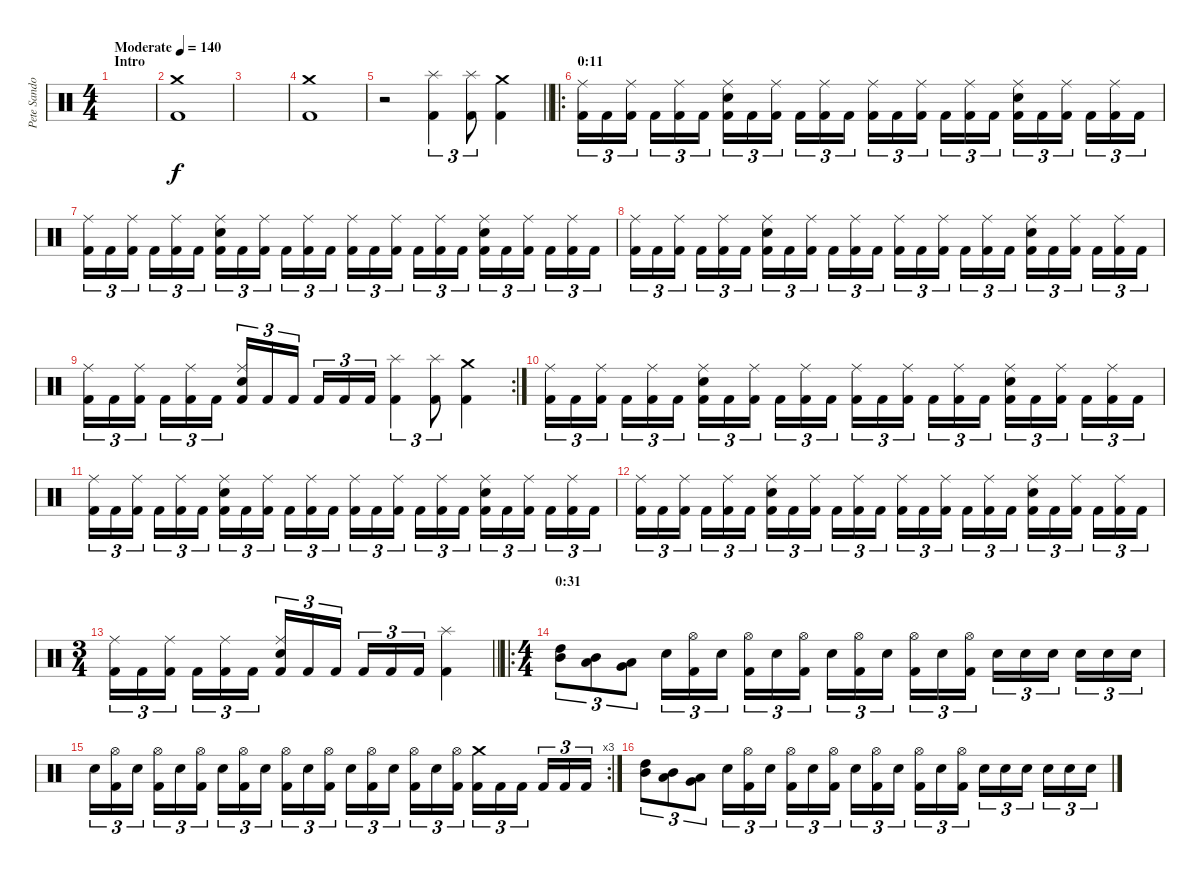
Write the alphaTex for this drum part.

\track ("Pete Sandoval" "Pete Sando") {instrument percussion}
\staff {score}
\articulation defaults
\ts (4 4)
\section ("" "Intro")
\tempo (140 "Moderate")
\clef neutral
\ks c
|
("Crash medium (hit)" "Kick (hit) 2").1 |
|
("Crash medium (hit)" "Kick (hit) 2").1 |
\barLineRight lightlight
r.2 ("Splash (hit)" "Kick (hit) 2").4{tu (3 2)} ("Splash (hit)" "Kick (hit) 2").8{tu (3 2)} ("Crash medium (hit)" "Kick (hit) 2").4 |
\ro
\section ("" "0:11")
("Ride (middle)" "Kick (hit) 2").16{tu (3 2)} "Kick (hit) 2".16{tu (3 2)} ("Ride (middle)" "Kick (hit) 2").16{tu (3 2) beam splitsecondary} "Kick (hit) 2".16{tu (3 2)} ("Ride (middle)" "Kick (hit) 2").16{tu (3 2)} "Kick (hit) 2".16{tu (3 2)} ("Ride (middle)" "Electric Snare (hit)" "Kick (hit) 2").16{tu (3 2)} "Kick (hit) 2".16{tu (3 2)} ("Ride (middle)" "Kick (hit) 2").16{tu (3 2) beam splitsecondary} "Kick (hit) 2".16{tu (3 2)} ("Ride (middle)" "Kick (hit) 2").16{tu (3 2)} "Kick (hit) 2".16{tu (3 2)} ("Ride (middle)" "Kick (hit) 2").16{tu (3 2)} "Kick (hit) 2".16{tu (3 2)} ("Ride (middle)" "Kick (hit) 2").16{tu (3 2) beam splitsecondary} "Kick (hit) 2".16{tu (3 2)} ("Ride (middle)" "Kick (hit) 2").16{tu (3 2)} "Kick (hit) 2".16{tu (3 2)} ("Ride (middle)" "Electric Snare (hit)" "Kick (hit) 2").16{tu (3 2)} "Kick (hit) 2".16{tu (3 2)} ("Ride (middle)" "Kick (hit) 2").16{tu (3 2) beam splitsecondary} "Kick (hit) 2".16{tu (3 2)} ("Ride (middle)" "Kick (hit) 2").16{tu (3 2)} "Kick (hit) 2".16{tu (3 2)} |
("Ride (middle)" "Kick (hit) 2").16{tu (3 2)} "Kick (hit) 2".16{tu (3 2)} ("Ride (middle)" "Kick (hit) 2").16{tu (3 2) beam splitsecondary} "Kick (hit) 2".16{tu (3 2)} ("Ride (middle)" "Kick (hit) 2").16{tu (3 2)} "Kick (hit) 2".16{tu (3 2)} ("Ride (middle)" "Electric Snare (hit)" "Kick (hit) 2").16{tu (3 2)} "Kick (hit) 2".16{tu (3 2)} ("Ride (middle)" "Kick (hit) 2").16{tu (3 2) beam splitsecondary} "Kick (hit) 2".16{tu (3 2)} ("Ride (middle)" "Kick (hit) 2").16{tu (3 2)} "Kick (hit) 2".16{tu (3 2)} ("Ride (middle)" "Kick (hit) 2").16{tu (3 2)} "Kick (hit) 2".16{tu (3 2)} ("Ride (middle)" "Kick (hit) 2").16{tu (3 2) beam splitsecondary} "Kick (hit) 2".16{tu (3 2)} ("Ride (middle)" "Kick (hit) 2").16{tu (3 2)} "Kick (hit) 2".16{tu (3 2)} ("Ride (middle)" "Electric Snare (hit)" "Kick (hit) 2").16{tu (3 2)} "Kick (hit) 2".16{tu (3 2)} ("Ride (middle)" "Kick (hit) 2").16{tu (3 2) beam splitsecondary} "Kick (hit) 2".16{tu (3 2)} ("Ride (middle)" "Kick (hit) 2").16{tu (3 2)} "Kick (hit) 2".16{tu (3 2)} |
("Ride (middle)" "Kick (hit) 2").16{tu (3 2)} "Kick (hit) 2".16{tu (3 2)} ("Ride (middle)" "Kick (hit) 2").16{tu (3 2) beam splitsecondary} "Kick (hit) 2".16{tu (3 2)} ("Ride (middle)" "Kick (hit) 2").16{tu (3 2)} "Kick (hit) 2".16{tu (3 2)} ("Ride (middle)" "Electric Snare (hit)" "Kick (hit) 2").16{tu (3 2)} "Kick (hit) 2".16{tu (3 2)} ("Ride (middle)" "Kick (hit) 2").16{tu (3 2) beam splitsecondary} "Kick (hit) 2".16{tu (3 2)} ("Ride (middle)" "Kick (hit) 2").16{tu (3 2)} "Kick (hit) 2".16{tu (3 2)} ("Ride (middle)" "Kick (hit) 2").16{tu (3 2)} "Kick (hit) 2".16{tu (3 2)} ("Ride (middle)" "Kick (hit) 2").16{tu (3 2) beam splitsecondary} "Kick (hit) 2".16{tu (3 2)} ("Ride (middle)" "Kick (hit) 2").16{tu (3 2)} "Kick (hit) 2".16{tu (3 2)} ("Ride (middle)" "Electric Snare (hit)" "Kick (hit) 2").16{tu (3 2)} "Kick (hit) 2".16{tu (3 2)} ("Ride (middle)" "Kick (hit) 2").16{tu (3 2) beam splitsecondary} "Kick (hit) 2".16{tu (3 2)} ("Ride (middle)" "Kick (hit) 2").16{tu (3 2)} "Kick (hit) 2".16{tu (3 2)} |
\rc 2
("Ride (middle)" "Kick (hit) 2").16{tu (3 2)} "Kick (hit) 2".16{tu (3 2)} ("Ride (middle)" "Kick (hit) 2").16{tu (3 2) beam splitsecondary} "Kick (hit) 2".16{tu (3 2)} ("Ride (middle)" "Kick (hit) 2").16{tu (3 2)} "Kick (hit) 2".16{tu (3 2)} ("Ride (middle)" "Electric Snare (hit)" "Kick (hit) 2").16{tu (3 2)} "Kick (hit) 2".16{tu (3 2)} "Kick (hit) 2".16{tu (3 2) beam splitsecondary} "Kick (hit) 2".16{tu (3 2)} "Kick (hit) 2".16{tu (3 2)} "Kick (hit) 2".16{tu (3 2)} ("Splash (hit)" "Kick (hit) 2").4{tu (3 2)} ("Splash (hit)" "Kick (hit) 2").8{tu (3 2)} ("Crash medium (hit)" "Kick (hit) 2").4 |
("Ride (middle)" "Kick (hit) 2").16{tu (3 2)} "Kick (hit) 2".16{tu (3 2)} ("Ride (middle)" "Kick (hit) 2").16{tu (3 2) beam splitsecondary} "Kick (hit) 2".16{tu (3 2)} ("Ride (middle)" "Kick (hit) 2").16{tu (3 2)} "Kick (hit) 2".16{tu (3 2)} ("Ride (middle)" "Electric Snare (hit)" "Kick (hit) 2").16{tu (3 2)} "Kick (hit) 2".16{tu (3 2)} ("Ride (middle)" "Kick (hit) 2").16{tu (3 2) beam splitsecondary} "Kick (hit) 2".16{tu (3 2)} ("Ride (middle)" "Kick (hit) 2").16{tu (3 2)} "Kick (hit) 2".16{tu (3 2)} ("Ride (middle)" "Kick (hit) 2").16{tu (3 2)} "Kick (hit) 2".16{tu (3 2)} ("Ride (middle)" "Kick (hit) 2").16{tu (3 2) beam splitsecondary} "Kick (hit) 2".16{tu (3 2)} ("Ride (middle)" "Kick (hit) 2").16{tu (3 2)} "Kick (hit) 2".16{tu (3 2)} ("Ride (middle)" "Electric Snare (hit)" "Kick (hit) 2").16{tu (3 2)} "Kick (hit) 2".16{tu (3 2)} ("Ride (middle)" "Kick (hit) 2").16{tu (3 2) beam splitsecondary} "Kick (hit) 2".16{tu (3 2)} ("Ride (middle)" "Kick (hit) 2").16{tu (3 2)} "Kick (hit) 2".16{tu (3 2)} |
("Ride (middle)" "Kick (hit) 2").16{tu (3 2)} "Kick (hit) 2".16{tu (3 2)} ("Ride (middle)" "Kick (hit) 2").16{tu (3 2) beam splitsecondary} "Kick (hit) 2".16{tu (3 2)} ("Ride (middle)" "Kick (hit) 2").16{tu (3 2)} "Kick (hit) 2".16{tu (3 2)} ("Ride (middle)" "Electric Snare (hit)" "Kick (hit) 2").16{tu (3 2)} "Kick (hit) 2".16{tu (3 2)} ("Ride (middle)" "Kick (hit) 2").16{tu (3 2) beam splitsecondary} "Kick (hit) 2".16{tu (3 2)} ("Ride (middle)" "Kick (hit) 2").16{tu (3 2)} "Kick (hit) 2".16{tu (3 2)} ("Ride (middle)" "Kick (hit) 2").16{tu (3 2)} "Kick (hit) 2".16{tu (3 2)} ("Ride (middle)" "Kick (hit) 2").16{tu (3 2) beam splitsecondary} "Kick (hit) 2".16{tu (3 2)} ("Ride (middle)" "Kick (hit) 2").16{tu (3 2)} "Kick (hit) 2".16{tu (3 2)} ("Ride (middle)" "Electric Snare (hit)" "Kick (hit) 2").16{tu (3 2)} "Kick (hit) 2".16{tu (3 2)} ("Ride (middle)" "Kick (hit) 2").16{tu (3 2) beam splitsecondary} "Kick (hit) 2".16{tu (3 2)} ("Ride (middle)" "Kick (hit) 2").16{tu (3 2)} "Kick (hit) 2".16{tu (3 2)} |
("Ride (middle)" "Kick (hit) 2").16{tu (3 2)} "Kick (hit) 2".16{tu (3 2)} ("Ride (middle)" "Kick (hit) 2").16{tu (3 2) beam splitsecondary} "Kick (hit) 2".16{tu (3 2)} ("Ride (middle)" "Kick (hit) 2").16{tu (3 2)} "Kick (hit) 2".16{tu (3 2)} ("Ride (middle)" "Electric Snare (hit)" "Kick (hit) 2").16{tu (3 2)} "Kick (hit) 2".16{tu (3 2)} ("Ride (middle)" "Kick (hit) 2").16{tu (3 2) beam splitsecondary} "Kick (hit) 2".16{tu (3 2)} ("Ride (middle)" "Kick (hit) 2").16{tu (3 2)} "Kick (hit) 2".16{tu (3 2)} ("Ride (middle)" "Kick (hit) 2").16{tu (3 2)} "Kick (hit) 2".16{tu (3 2)} ("Ride (middle)" "Kick (hit) 2").16{tu (3 2) beam splitsecondary} "Kick (hit) 2".16{tu (3 2)} ("Ride (middle)" "Kick (hit) 2").16{tu (3 2)} "Kick (hit) 2".16{tu (3 2)} ("Ride (middle)" "Electric Snare (hit)" "Kick (hit) 2").16{tu (3 2)} "Kick (hit) 2".16{tu (3 2)} ("Ride (middle)" "Kick (hit) 2").16{tu (3 2) beam splitsecondary} "Kick (hit) 2".16{tu (3 2)} ("Ride (middle)" "Kick (hit) 2").16{tu (3 2)} "Kick (hit) 2".16{tu (3 2)} |
\ts (3 4)
\barLineRight lightlight
("Ride (middle)" "Kick (hit) 2").16{tu (3 2)} "Kick (hit) 2".16{tu (3 2)} ("Ride (middle)" "Kick (hit) 2").16{tu (3 2) beam splitsecondary} "Kick (hit) 2".16{tu (3 2)} ("Ride (middle)" "Kick (hit) 2").16{tu (3 2)} "Kick (hit) 2".16{tu (3 2)} ("Ride (middle)" "Electric Snare (hit)" "Kick (hit) 2").16{tu (3 2)} "Kick (hit) 2".16{tu (3 2)} "Kick (hit) 2".16{tu (3 2) beam splitsecondary} "Kick (hit) 2".16{tu (3 2)} "Kick (hit) 2".16{tu (3 2)} "Kick (hit) 2".16{tu (3 2)} ("Splash (hit)" "Kick (hit) 2").4 |
\ro
\ts (4 4)
\section ("" "0:31")
("High Tom (hit)" "Mid Tom (hit)").8{tu (3 2)} ("Mid Tom (hit)" "Low Tom (hit)").8{tu (3 2)} ("Low Tom (hit)" "Very Low Tom (hit)").8{tu (3 2)} "Electric Snare (hit)".16{tu (3 2)} ("Hi-Hat (open)" "Kick (hit) 2").16{tu (3 2)} "Electric Snare (hit)".16{tu (3 2) beam splitsecondary} ("Hi-Hat (open)" "Kick (hit) 2").16{tu (3 2)} "Electric Snare (hit)".16{tu (3 2)} ("Hi-Hat (open)" "Kick (hit) 2").16{tu (3 2)} "Electric Snare (hit)".16{tu (3 2)} ("Hi-Hat (open)" "Kick (hit) 2").16{tu (3 2)} "Electric Snare (hit)".16{tu (3 2) beam splitsecondary} ("Hi-Hat (open)" "Kick (hit) 2").16{tu (3 2)} "Electric Snare (hit)".16{tu (3 2)} ("Hi-Hat (open)" "Kick (hit) 2").16{tu (3 2)} "Electric Snare (hit)".16{tu (3 2)} "Electric Snare (hit)".16{tu (3 2)} "Electric Snare (hit)".16{tu (3 2) beam splitsecondary} "Electric Snare (hit)".16{tu (3 2)} "Electric Snare (hit)".16{tu (3 2)} "Electric Snare (hit)".16{tu (3 2)} |
\rc 3 "Electric Snare (hit)".16{tu (3 2)}
("Hi-Hat (open)" "Kick (hit) 2").16{tu (3 2)} "Electric Snare (hit)".16{tu (3 2) beam splitsecondary} ("Hi-Hat (open)" "Kick (hit) 2").16{tu (3 2)} "Electric Snare (hit)".16{tu (3 2)} ("Hi-Hat (open)" "Kick (hit) 2").16{tu (3 2)} "Electric Snare (hit)".16{tu (3 2)} ("Hi-Hat (open)" "Kick (hit) 2").16{tu (3 2)} "Electric Snare (hit)".16{tu (3 2) beam splitsecondary} ("Hi-Hat (open)" "Kick (hit) 2").16{tu (3 2)} "Electric Snare (hit)".16{tu (3 2)} ("Hi-Hat (open)" "Kick (hit) 2").16{tu (3 2)} "Electric Snare (hit)".16{tu (3 2)} ("Hi-Hat (open)" "Kick (hit) 2").16{tu (3 2)} "Electric Snare (hit)".16{tu (3 2) beam splitsecondary} ("Hi-Hat (open)" "Kick (hit) 2").16{tu (3 2)} "Electric Snare (hit)".16{tu (3 2)} ("Hi-Hat (open)" "Kick (hit) 2").16{tu (3 2)} ("Crash medium (hit)" "Kick (hit) 2").16{tu (3 2)} "Kick (hit) 2".16{tu (3 2)} "Kick (hit) 2".16{tu (3 2) beam splitsecondary} "Kick (hit) 2".16{tu (3 2)} "Kick (hit) 2".16{tu (3 2)} "Kick (hit) 2".16{tu (3 2)} |
("High Tom (hit)" "Mid Tom (hit)").8{tu (3 2)} ("Mid Tom (hit)" "Low Tom (hit)").8{tu (3 2)} ("Low Tom (hit)" "Very Low Tom (hit)").8{tu (3 2)} "Electric Snare (hit)".16{tu (3 2)} ("Hi-Hat (open)" "Kick (hit) 2").16{tu (3 2)} "Electric Snare (hit)".16{tu (3 2) beam splitsecondary} ("Hi-Hat (open)" "Kick (hit) 2").16{tu (3 2)} "Electric Snare (hit)".16{tu (3 2)} ("Hi-Hat (open)" "Kick (hit) 2").16{tu (3 2)} "Electric Snare (hit)".16{tu (3 2)} ("Hi-Hat (open)" "Kick (hit) 2").16{tu (3 2)} "Electric Snare (hit)".16{tu (3 2) beam splitsecondary} ("Hi-Hat (open)" "Kick (hit) 2").16{tu (3 2)} "Electric Snare (hit)".16{tu (3 2)} ("Hi-Hat (open)" "Kick (hit) 2").16{tu (3 2)} "Electric Snare (hit)".16{tu (3 2)} "Electric Snare (hit)".16{tu (3 2)} "Electric Snare (hit)".16{tu (3 2) beam splitsecondary} "Electric Snare (hit)".16{tu (3 2)} "Electric Snare (hit)".16{tu (3 2)} "Electric Snare (hit)".16{tu (3 2)}
